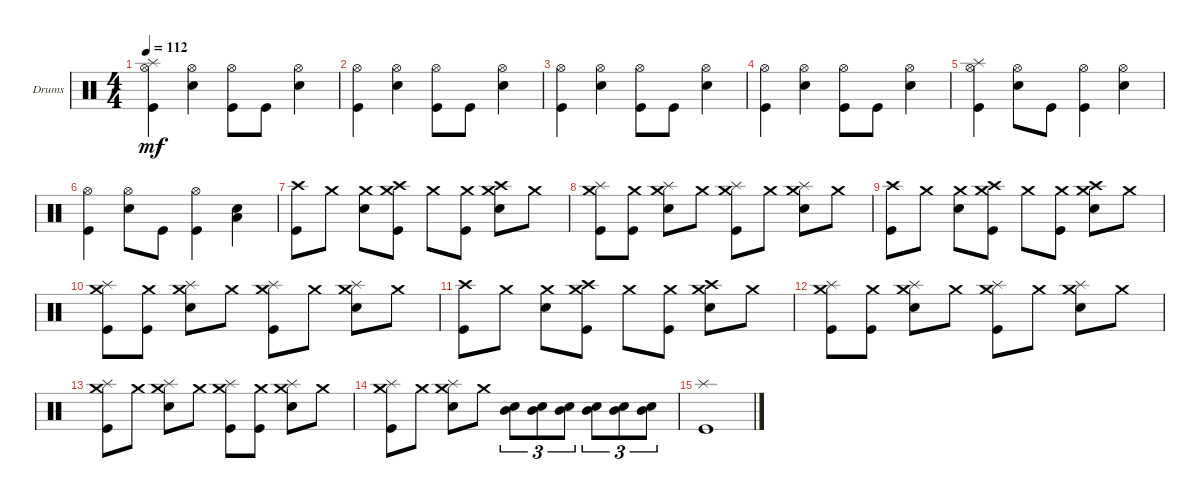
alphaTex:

\defaultSystemsLayout 4
\bracketExtendMode groupsimilarinstruments
\firstSystemTrackNameOrientation horizontal
\otherSystemsTrackNameOrientation horizontal
\track ("Drumkit" "Drums") {instrument percussion}
\staff {score}
\articulation defaults
\ts (4 4)
\tempo 112
\clef neutral
\ks c
("Kick (hit)" "Hi-Hat (open)" "Splash (hit)").4{dy mf} ("Hi-Hat (open)" "Snare (hit) 2").4 ("Hi-Hat (open)" "Kick (hit)").8 "Kick (hit)".8 ("Hi-Hat (open)" "Snare (hit) 2").4 |
("Kick (hit)" "Hi-Hat (open)").4 ("Hi-Hat (open)" "Snare (hit) 2").4 ("Hi-Hat (open)" "Kick (hit)").8 "Kick (hit)".8 ("Hi-Hat (open)" "Snare (hit) 2").4 |
("Kick (hit)" "Hi-Hat (open)").4 ("Hi-Hat (open)" "Snare (hit) 2").4 ("Hi-Hat (open)" "Kick (hit)").8 "Kick (hit)".8 ("Hi-Hat (open)" "Snare (hit) 2").4 |
("Kick (hit)" "Hi-Hat (open)").4 ("Hi-Hat (open)" "Snare (hit) 2").4 ("Hi-Hat (open)" "Kick (hit)").8 "Kick (hit)".8 ("Hi-Hat (open)" "Snare (hit) 2").4 |
("Kick (hit)" "Hi-Hat (open)" "Splash (hit)").4 ("Snare (hit) 2" "Hi-Hat (open)").8 "Kick (hit)".8 ("Kick (hit)" "Hi-Hat (open)").4 ("Snare (hit) 2" "Hi-Hat (open)").4 |
("Kick (hit)" "Hi-Hat (open)").4 ("Snare (hit) 2" "Hi-Hat (open)").8 "Kick (hit)".8 ("Kick (hit)" "Hi-Hat (open)").4 ("Snare (hit) 2" "Low Tom (hit)").4 |
("Kick (hit)" "Crash high (hit)").8 "Crash medium (hit)".8 ("Crash medium (hit)" "Snare (hit) 2").8 ("Crash medium (hit)" "Crash high (hit)" "Kick (hit)").8 "Crash medium (hit)".8 ("Crash medium (hit)" "Kick (hit)").8 ("Crash medium (hit)" "Crash high (hit)" "Snare (hit) 2").8 "Crash medium (hit)".8 |
("Kick (hit)" "Crash medium (hit)" "Splash (hit)").8 ("Kick (hit)" "Crash medium (hit)").8 ("Crash medium (hit)" "Snare (hit) 2" "Splash (hit)").8 "Crash medium (hit)".8 ("Crash medium (hit)" "Kick (hit)" "Splash (hit)").8 "Crash medium (hit)".8 ("Crash medium (hit)" "Snare (hit) 2" "Splash (hit)").8 "Crash medium (hit)".8 |
("Kick (hit)" "Crash high (hit)").8 "Crash medium (hit)".8 ("Crash medium (hit)" "Snare (hit) 2").8 ("Crash medium (hit)" "Crash high (hit)" "Kick (hit)").8 "Crash medium (hit)".8 ("Crash medium (hit)" "Kick (hit)").8 ("Crash medium (hit)" "Crash high (hit)" "Snare (hit) 2").8 "Crash medium (hit)".8 |
("Kick (hit)" "Crash medium (hit)" "Splash (hit)").8 ("Kick (hit)" "Crash medium (hit)").8 ("Crash medium (hit)" "Snare (hit) 2" "Splash (hit)").8 "Crash medium (hit)".8 ("Crash medium (hit)" "Splash (hit)" "Kick (hit)").8 "Crash medium (hit)".8 ("Crash medium (hit)" "Snare (hit) 2" "Splash (hit)").8 "Crash medium (hit)".8 |
("Kick (hit)" "Crash high (hit)").8 "Crash medium (hit)".8 ("Crash medium (hit)" "Snare (hit) 2").8 ("Crash medium (hit)" "Crash high (hit)" "Kick (hit)").8 "Crash medium (hit)".8 ("Crash medium (hit)" "Kick (hit)").8 ("Crash medium (hit)" "Crash high (hit)" "Snare (hit) 2").8 "Crash medium (hit)".8 |
("Kick (hit)" "Crash medium (hit)" "Splash (hit)").8 ("Kick (hit)" "Crash medium (hit)").8 ("Crash medium (hit)" "Snare (hit) 2" "Splash (hit)").8 "Crash medium (hit)".8 ("Crash medium (hit)" "Splash (hit)" "Kick (hit)").8 "Crash medium (hit)".8 ("Crash medium (hit)" "Snare (hit) 2" "Splash (hit)").8 "Crash medium (hit)".8 |
("Kick (hit)" "Crash medium (hit)" "Splash (hit)").8 "Crash medium (hit)".8 ("Crash medium (hit)" "Snare (hit) 2" "Splash (hit)").8 "Crash medium (hit)".8 ("Crash medium (hit)" "Splash (hit)" "Kick (hit)").8 ("Crash medium (hit)" "Kick (hit)").8 ("Crash medium (hit)" "Snare (hit) 2" "Splash (hit)").8 "Crash medium (hit)".8 |
("Kick (hit)" "Crash medium (hit)" "Splash (hit)").8 "Crash medium (hit)".8 ("Crash medium (hit)" "Snare (hit) 2" "Splash (hit)").8 "Crash medium (hit)".8 ("Snare (hit) 2" "Mid Tom (hit)").8{tu (3 2)} ("Snare (hit) 2" "Mid Tom (hit)").8{tu (3 2)} ("Snare (hit) 2" "Mid Tom (hit)").8{tu (3 2)} ("Snare (hit) 2" "Mid Tom (hit)").8{tu (3 2)} ("Snare (hit) 2" "Mid Tom (hit)").8{tu (3 2)} ("Snare (hit) 2" "Mid Tom (hit)").8{tu (3 2)} |
("Kick (hit)" "Splash (hit)").1
